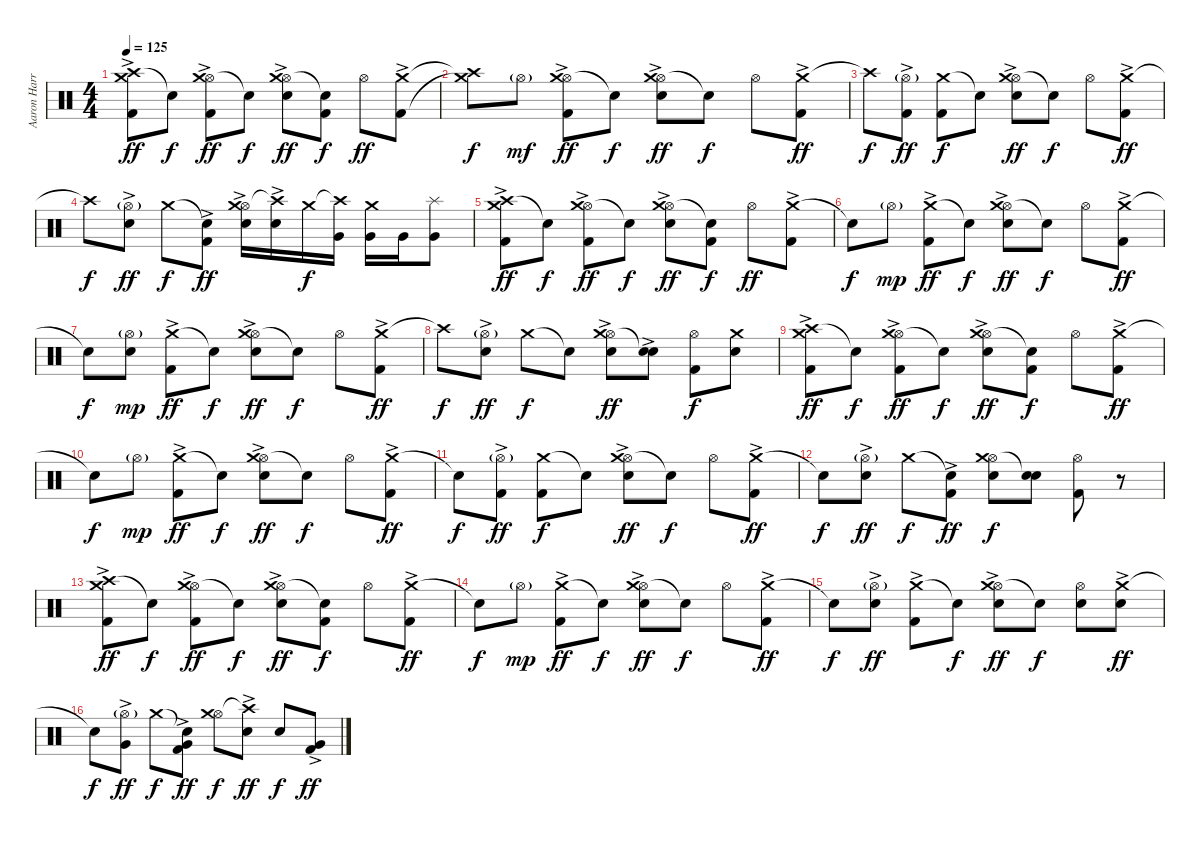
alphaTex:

\track ("Aaron Harris" "Aaron Harr") {instrument percussion}
\staff {score}
\articulation defaults
\ts (4 4)
\tempo 125
\clef neutral
\ks c
("Crash high (hit)" "Crash medium (hit)" "Kick (hit) 2"{ac}).8{dy ff} "Snare (hit)"{t}.8{dy f} ("Hi-Hat (open)" "Crash medium (hit)" "Kick (hit) 2"{ac}).8{dy ff} "Snare (hit)"{t}.8{dy f} ("Hi-Hat (open)" "Crash medium (hit)" "Snare (hit) 2"{ac}).8{dy ff} ("Snare (hit)"{t} "Kick (hit) 2").8{dy f} "Hi-Hat (open)".8{dy ff} ("Crash medium (hit)" "Kick (hit) 2"{ac}).8 |
("Crash high (hit)"{t} "Crash medium (hit)"{t}).8{dy f} "Hi-Hat (open)"{g}.8{dy mf} ("Hi-Hat (open)" "Crash medium (hit)" "Kick (hit) 2"{ac}).8{dy ff} "Snare (hit)"{t}.8{dy f} ("Hi-Hat (open)" "Crash medium (hit)" "Snare (hit) 2"{ac}).8{dy ff} "Snare (hit)"{t}.8{dy f} "Hi-Hat (open)".8 ("Crash medium (hit)" "Kick (hit) 2"{ac}).8{dy ff} |
"Crash high (hit)"{t}.8{dy f} ("Hi-Hat (open)"{g} "Kick (hit) 2"{ac}).8{dy ff} ("Crash medium (hit)" "Kick (hit) 2").8{dy f} "Snare (hit)"{t}.8 ("Hi-Hat (open)" "Crash medium (hit)" "Snare (hit) 2"{ac}).8{dy ff} "Snare (hit)"{t}.8{dy f} "Hi-Hat (open)".8 ("Crash medium (hit)" "Kick (hit) 2"{ac}).8{dy ff} |
"Crash high (hit)"{t}.8{dy f} ("Hi-Hat (open)"{g} "Snare (hit) 2"{ac}).8{dy ff} "Crash medium (hit)".8{dy f} ("Snare (hit)"{t} "Kick (hit) 2"{ac}).8{dy ff} ("Hi-Hat (open)" "Crash medium (hit)" "Snare (hit) 2"{ac}).16 ("Crash high (hit)"{t} "Snare (hit) 2"{ac}).16 "Crash medium (hit)".16{dy f} ("Crash high (hit)"{t} "Very Low Tom (hit)").16 ("Crash medium (hit)" "Very Low Tom (hit)").16 "Very Low Tom (hit)".16 ("Splash (hit)" "Very Low Tom (hit)").8 |
("Crash high (hit)" "Crash medium (hit)" "Kick (hit) 2"{ac}).8{dy ff} "Snare (hit)"{t}.8{dy f} ("Hi-Hat (open)" "Crash medium (hit)" "Kick (hit) 2"{ac}).8{dy ff} "Snare (hit)"{t}.8{dy f} ("Hi-Hat (open)" "Crash medium (hit)" "Snare (hit) 2"{ac}).8{dy ff} ("Snare (hit)"{t} "Kick (hit) 2").8{dy f} "Hi-Hat (open)".8{dy ff} ("Crash medium (hit)" "Kick (hit) 2"{ac}).8 |
"Snare (hit)"{t}.8{dy f} "Hi-Hat (open)"{g}.8{dy mp} ("Crash medium (hit)" "Kick (hit) 2"{ac}).8{dy ff} "Snare (hit)"{t}.8{dy f} ("Hi-Hat (open)" "Crash medium (hit)" "Snare (hit) 2"{ac}).8{dy ff} "Snare (hit)"{t}.8{dy f} "Hi-Hat (open)".8 ("Crash medium (hit)" "Kick (hit) 2"{ac}).8{dy ff} |
"Snare (hit)"{t}.8{dy f} ("Hi-Hat (open)"{g} "Snare (hit) 2").8{dy mp} ("Crash medium (hit)" "Kick (hit) 2"{ac}).8{dy ff} "Snare (hit)"{t}.8{dy f} ("Hi-Hat (open)" "Crash medium (hit)" "Snare (hit) 2"{ac}).8{dy ff} "Snare (hit)"{t}.8{dy f} "Hi-Hat (open)".8 ("Crash medium (hit)" "Kick (hit) 2"{ac}).8{dy ff} |
"Crash high (hit)"{t}.8{dy f} ("Hi-Hat (open)"{g} "Snare (hit) 2"{ac}).8{dy ff} "Crash medium (hit)".8{dy f} "Snare (hit)"{t}.8 ("Hi-Hat (open)" "Crash medium (hit)" "Snare (hit) 2"{ac}).8{dy ff} ("Snare (hit)"{t} "Snare (hit) 2"{ac}).8 ("Hi-Hat (open)" "Kick (hit) 2").8{dy f} ("Crash medium (hit)" "Snare (hit) 2").8 |
("Crash high (hit)" "Crash medium (hit)" "Kick (hit) 2"{ac}).8{dy ff} "Snare (hit)"{t}.8{dy f} ("Hi-Hat (open)" "Crash medium (hit)" "Kick (hit) 2"{ac}).8{dy ff} "Snare (hit)"{t}.8{dy f} ("Hi-Hat (open)" "Crash medium (hit)" "Snare (hit) 2"{ac}).8{dy ff} ("Snare (hit)"{t} "Kick (hit) 2").8{dy f} "Hi-Hat (open)".8 ("Crash medium (hit)" "Kick (hit) 2"{ac}).8{dy ff} |
"Snare (hit)"{t}.8{dy f} "Hi-Hat (open)"{g}.8{dy mp} ("Crash medium (hit)" "Kick (hit) 2"{ac}).8{dy ff} "Snare (hit)"{t}.8{dy f} ("Hi-Hat (open)" "Crash medium (hit)" "Snare (hit) 2"{ac}).8{dy ff} "Snare (hit)"{t}.8{dy f} "Hi-Hat (open)".8 ("Crash medium (hit)" "Kick (hit) 2"{ac}).8{dy ff} |
"Snare (hit)"{t}.8{dy f} ("Hi-Hat (open)"{g} "Kick (hit) 2"{ac}).8{dy ff} ("Crash medium (hit)" "Kick (hit) 2").8{dy f} "Snare (hit)"{t}.8 ("Hi-Hat (open)" "Crash medium (hit)" "Snare (hit) 2"{ac}).8{dy ff} "Snare (hit)"{t}.8{dy f} "Hi-Hat (open)".8 ("Crash medium (hit)" "Kick (hit) 2"{ac}).8{dy ff} |
"Snare (hit)"{t}.8{dy f} ("Hi-Hat (open)"{g} "Snare (hit) 2"{ac}).8{dy ff} "Crash medium (hit)".8{dy f} ("Snare (hit)"{t} "Kick (hit) 2"{ac}).8{dy ff} ("Hi-Hat (open)" "Crash medium (hit)" "Snare (hit) 2").8{dy f} ("Snare (hit)"{t} "Snare (hit) 2").8 ("Hi-Hat (open)" "Kick (hit) 2").8 r.8 |
("Crash high (hit)" "Crash medium (hit)" "Kick (hit) 2"{ac}).8{dy ff} "Snare (hit)"{t}.8{dy f} ("Hi-Hat (open)" "Crash medium (hit)" "Kick (hit) 2"{ac}).8{dy ff} "Snare (hit)"{t}.8{dy f} ("Hi-Hat (open)" "Crash medium (hit)" "Electric Snare (hit)"{ac}).8{dy ff} ("Snare (hit)"{t} "Kick (hit) 2").8{dy f} "Hi-Hat (open)".8 ("Crash medium (hit)" "Kick (hit) 2"{ac}).8{dy ff} |
"Snare (hit)"{t}.8{dy f} "Hi-Hat (open)"{g}.8{dy mp} ("Crash medium (hit)" "Kick (hit) 2"{ac}).8{dy ff} "Snare (hit)"{t}.8{dy f} ("Hi-Hat (open)" "Crash medium (hit)" "Electric Snare (hit)"{ac}).8{dy ff} "Snare (hit)"{t}.8{dy f} "Hi-Hat (open)".8 ("Crash medium (hit)" "Kick (hit) 2"{ac}).8{dy ff} |
"Snare (hit)"{t}.8{dy f} ("Hi-Hat (open)"{g} "Electric Snare (hit)"{ac}).8{dy ff} ("Crash medium (hit)" "Kick (hit) 2"{ac}).8 "Snare (hit)"{t}.8{dy f} ("Hi-Hat (open)" "Crash medium (hit)" "Electric Snare (hit)"{ac}).8{dy ff} "Snare (hit)"{t}.8{dy f} ("Hi-Hat (open)" "Electric Snare (hit)").8 ("Crash medium (hit)" "Electric Snare (hit)"{ac}).8{dy ff} |
"Snare (hit)"{t}.8{dy f} ("Hi-Hat (open)"{g} "Very Low Tom (hit)"{ac}).8{dy ff} "Crash medium (hit)".8{dy f} ("Snare (hit)"{t} "Very Low Tom (hit)"{ac} "Kick (hit) 2").8{dy ff} ("Hi-Hat (open)" "Crash medium (hit)").8{dy f} ("Crash high (hit)"{t} "Electric Snare (hit)"{ac}).8{dy ff} "Electric Snare (hit)".8{dy f} ("Very Low Tom (hit)" "Kick (hit) 2"{ac}).8{dy ff}
